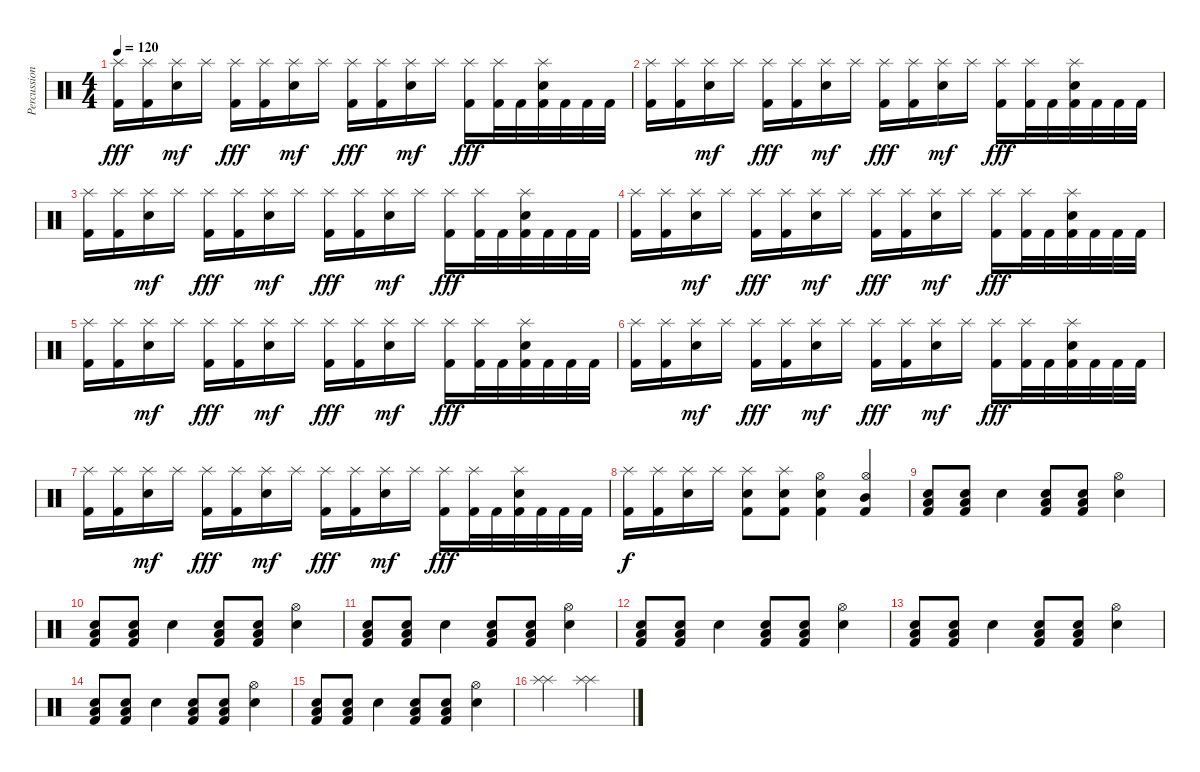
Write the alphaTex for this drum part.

\track ("Percussions" "Percussion") {instrument percussion}
\staff {score}
\articulation defaults
\ts (4 4)
\tempo 120
\clef neutral
\ks c
("Splash (hit)" "Kick (hit) 2").16{dy fff} ("Splash (hit)" "Kick (hit) 2").16 ("Splash (hit)" "Electric Snare (hit)").16{dy mf} "Splash (hit)".16 ("Splash (hit)" "Kick (hit) 2").16{dy fff} ("Splash (hit)" "Kick (hit) 2").16 ("Splash (hit)" "Electric Snare (hit)").16{dy mf} "Splash (hit)".16 ("Splash (hit)" "Kick (hit) 2").16{dy fff} ("Splash (hit)" "Kick (hit) 2").16 ("Splash (hit)" "Electric Snare (hit)").16{dy mf} "Splash (hit)".16 ("Splash (hit)" "Kick (hit) 2").16{dy fff} ("Splash (hit)" "Kick (hit) 2").32 "Kick (hit) 2".32 ("Splash (hit)" "Electric Snare (hit)" "Kick (hit) 2").32 "Kick (hit) 2".32 "Kick (hit) 2".32 "Kick (hit) 2".32 |
("Splash (hit)" "Kick (hit) 2").16 ("Splash (hit)" "Kick (hit) 2").16 ("Splash (hit)" "Electric Snare (hit)").16{dy mf} "Splash (hit)".16 ("Splash (hit)" "Kick (hit) 2").16{dy fff} ("Splash (hit)" "Kick (hit) 2").16 ("Splash (hit)" "Electric Snare (hit)").16{dy mf} "Splash (hit)".16 ("Splash (hit)" "Kick (hit) 2").16{dy fff} ("Splash (hit)" "Kick (hit) 2").16 ("Splash (hit)" "Electric Snare (hit)").16{dy mf} "Splash (hit)".16 ("Splash (hit)" "Kick (hit) 2").16{dy fff} ("Splash (hit)" "Kick (hit) 2").32 "Kick (hit) 2".32 ("Splash (hit)" "Electric Snare (hit)" "Kick (hit) 2").32 "Kick (hit) 2".32 "Kick (hit) 2".32 "Kick (hit) 2".32 |
("Splash (hit)" "Kick (hit) 2").16 ("Splash (hit)" "Kick (hit) 2").16 ("Splash (hit)" "Electric Snare (hit)").16{dy mf} "Splash (hit)".16 ("Splash (hit)" "Kick (hit) 2").16{dy fff} ("Splash (hit)" "Kick (hit) 2").16 ("Splash (hit)" "Electric Snare (hit)").16{dy mf} "Splash (hit)".16 ("Splash (hit)" "Kick (hit) 2").16{dy fff} ("Splash (hit)" "Kick (hit) 2").16 ("Splash (hit)" "Electric Snare (hit)").16{dy mf} "Splash (hit)".16 ("Splash (hit)" "Kick (hit) 2").16{dy fff} ("Splash (hit)" "Kick (hit) 2").32 "Kick (hit) 2".32 ("Splash (hit)" "Electric Snare (hit)" "Kick (hit) 2").32 "Kick (hit) 2".32 "Kick (hit) 2".32 "Kick (hit) 2".32 |
("Splash (hit)" "Kick (hit) 2").16 ("Splash (hit)" "Kick (hit) 2").16 ("Splash (hit)" "Electric Snare (hit)").16{dy mf} "Splash (hit)".16 ("Splash (hit)" "Kick (hit) 2").16{dy fff} ("Splash (hit)" "Kick (hit) 2").16 ("Splash (hit)" "Electric Snare (hit)").16{dy mf} "Splash (hit)".16 ("Splash (hit)" "Kick (hit) 2").16{dy fff} ("Splash (hit)" "Kick (hit) 2").16 ("Splash (hit)" "Electric Snare (hit)").16{dy mf} "Splash (hit)".16 ("Splash (hit)" "Kick (hit) 2").16{dy fff} ("Splash (hit)" "Kick (hit) 2").32 "Kick (hit) 2".32 ("Splash (hit)" "Electric Snare (hit)" "Kick (hit) 2").32 "Kick (hit) 2".32 "Kick (hit) 2".32 "Kick (hit) 2".32 |
("Splash (hit)" "Kick (hit) 2").16 ("Splash (hit)" "Kick (hit) 2").16 ("Splash (hit)" "Electric Snare (hit)").16{dy mf} "Splash (hit)".16 ("Splash (hit)" "Kick (hit) 2").16{dy fff} ("Splash (hit)" "Kick (hit) 2").16 ("Splash (hit)" "Electric Snare (hit)").16{dy mf} "Splash (hit)".16 ("Splash (hit)" "Kick (hit) 2").16{dy fff} ("Splash (hit)" "Kick (hit) 2").16 ("Splash (hit)" "Electric Snare (hit)").16{dy mf} "Splash (hit)".16 ("Splash (hit)" "Kick (hit) 2").16{dy fff} ("Splash (hit)" "Kick (hit) 2").32 "Kick (hit) 2".32 ("Splash (hit)" "Electric Snare (hit)" "Kick (hit) 2").32 "Kick (hit) 2".32 "Kick (hit) 2".32 "Kick (hit) 2".32 |
("Splash (hit)" "Kick (hit) 2").16 ("Splash (hit)" "Kick (hit) 2").16 ("Splash (hit)" "Electric Snare (hit)").16{dy mf} "Splash (hit)".16 ("Splash (hit)" "Kick (hit) 2").16{dy fff} ("Splash (hit)" "Kick (hit) 2").16 ("Splash (hit)" "Electric Snare (hit)").16{dy mf} "Splash (hit)".16 ("Splash (hit)" "Kick (hit) 2").16{dy fff} ("Splash (hit)" "Kick (hit) 2").16 ("Splash (hit)" "Electric Snare (hit)").16{dy mf} "Splash (hit)".16 ("Splash (hit)" "Kick (hit) 2").16{dy fff} ("Splash (hit)" "Kick (hit) 2").32 "Kick (hit) 2".32 ("Splash (hit)" "Electric Snare (hit)" "Kick (hit) 2").32 "Kick (hit) 2".32 "Kick (hit) 2".32 "Kick (hit) 2".32 |
("Splash (hit)" "Kick (hit) 2").16 ("Splash (hit)" "Kick (hit) 2").16 ("Splash (hit)" "Electric Snare (hit)").16{dy mf} "Splash (hit)".16 ("Splash (hit)" "Kick (hit) 2").16{dy fff} ("Splash (hit)" "Kick (hit) 2").16 ("Splash (hit)" "Electric Snare (hit)").16{dy mf} "Splash (hit)".16 ("Splash (hit)" "Kick (hit) 2").16{dy fff} ("Splash (hit)" "Kick (hit) 2").16 ("Splash (hit)" "Electric Snare (hit)").16{dy mf} "Splash (hit)".16 ("Splash (hit)" "Kick (hit) 2").16{dy fff} ("Splash (hit)" "Kick (hit) 2").32 "Kick (hit) 2".32 ("Splash (hit)" "Electric Snare (hit)" "Kick (hit) 2").32 "Kick (hit) 2".32 "Kick (hit) 2".32 "Kick (hit) 2".32 |
("Splash (hit)" "Kick (hit) 2").16{dy f} ("Splash (hit)" "Kick (hit) 2").16 ("Splash (hit)" "Electric Snare (hit)").16 "Splash (hit)".16 ("Splash (hit)" "Electric Snare (hit)" "Kick (hit) 2").8 ("Splash (hit)" "Electric Snare (hit)" "Kick (hit) 2").8 ("Hi-Hat (open)" "Electric Snare (hit)" "Kick (hit) 2").4 ("Hi-Hat (open)" "Mid Tom (hit)" "Kick (hit) 2").4 |
("Electric Snare (hit)" "Low Floor Tom (hit)" "Kick (hit) 2").8 ("Electric Snare (hit)" "Kick (hit) 2" "Low Floor Tom (hit)").8 "Electric Snare (hit)".4 ("Electric Snare (hit)" "Low Floor Tom (hit)" "Kick (hit) 2").8 ("Electric Snare (hit)" "Kick (hit) 2" "Low Floor Tom (hit)").8 ("Hi-Hat (open)" "Electric Snare (hit)").4 |
("Electric Snare (hit)" "Low Floor Tom (hit)" "Kick (hit) 2").8 ("Electric Snare (hit)" "Kick (hit) 2" "Low Floor Tom (hit)").8 "Electric Snare (hit)".4 ("Electric Snare (hit)" "Low Floor Tom (hit)" "Kick (hit) 2").8 ("Electric Snare (hit)" "Kick (hit) 2" "Low Floor Tom (hit)").8 ("Hi-Hat (open)" "Electric Snare (hit)").4 |
("Electric Snare (hit)" "Low Floor Tom (hit)" "Kick (hit) 2").8 ("Electric Snare (hit)" "Kick (hit) 2" "Low Floor Tom (hit)").8 "Electric Snare (hit)".4 ("Electric Snare (hit)" "Low Floor Tom (hit)" "Kick (hit) 2").8 ("Electric Snare (hit)" "Kick (hit) 2" "Low Floor Tom (hit)").8 ("Hi-Hat (open)" "Electric Snare (hit)").4 |
("Electric Snare (hit)" "Low Floor Tom (hit)" "Kick (hit) 2").8 ("Electric Snare (hit)" "Kick (hit) 2" "Low Floor Tom (hit)").8 "Electric Snare (hit)".4 ("Electric Snare (hit)" "Low Floor Tom (hit)" "Kick (hit) 2").8 ("Electric Snare (hit)" "Kick (hit) 2" "Low Floor Tom (hit)").8 ("Hi-Hat (open)" "Electric Snare (hit)").4 |
("Electric Snare (hit)" "Low Floor Tom (hit)" "Kick (hit) 2").8 ("Electric Snare (hit)" "Kick (hit) 2" "Low Floor Tom (hit)").8 "Electric Snare (hit)".4 ("Electric Snare (hit)" "Low Floor Tom (hit)" "Kick (hit) 2").8 ("Electric Snare (hit)" "Kick (hit) 2" "Low Floor Tom (hit)").8 ("Hi-Hat (open)" "Electric Snare (hit)").4 |
("Electric Snare (hit)" "Low Floor Tom (hit)" "Kick (hit) 2").8 ("Electric Snare (hit)" "Kick (hit) 2" "Low Floor Tom (hit)").8 "Electric Snare (hit)".4 ("Electric Snare (hit)" "Low Floor Tom (hit)" "Kick (hit) 2").8 ("Electric Snare (hit)" "Kick (hit) 2" "Low Floor Tom (hit)").8 ("Hi-Hat (open)" "Electric Snare (hit)").4 |
("Electric Snare (hit)" "Low Floor Tom (hit)" "Kick (hit) 2").8 ("Electric Snare (hit)" "Kick (hit) 2" "Low Floor Tom (hit)").8 "Electric Snare (hit)".4 ("Electric Snare (hit)" "Low Floor Tom (hit)" "Kick (hit) 2").8 ("Electric Snare (hit)" "Kick (hit) 2" "Low Floor Tom (hit)").8 ("Hi-Hat (open)" "Electric Snare (hit)").4 |
("Splash (hit)" "Splash (hit)").2 ("Splash (hit)" "Splash (hit)").2
